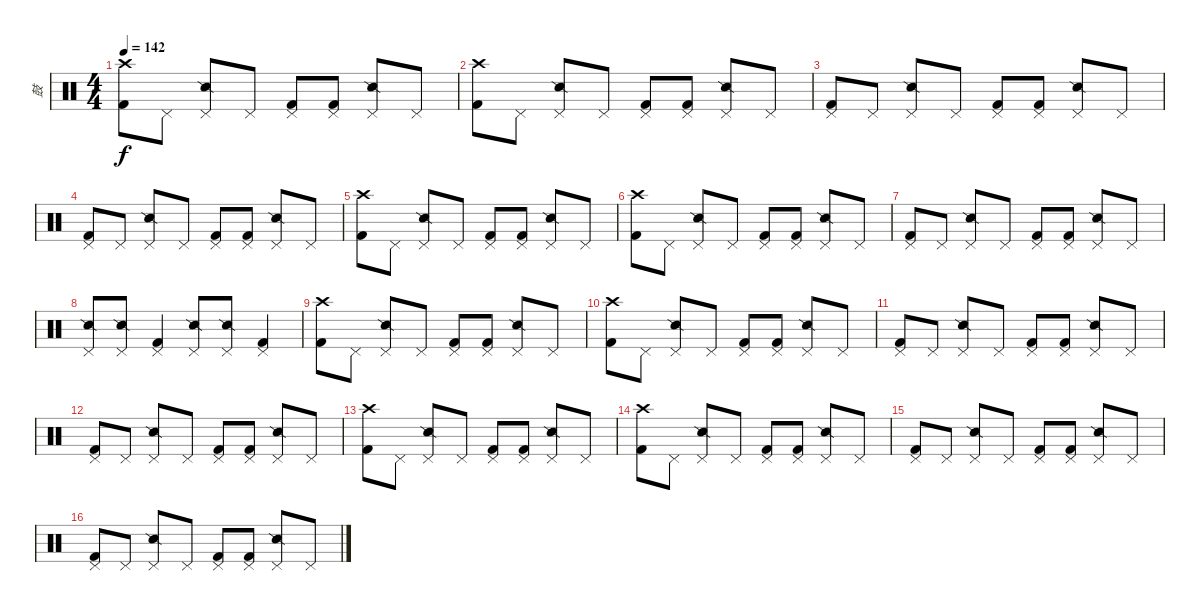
\track ("鼓" "鼓") {instrument percussion}
\staff {score}
\articulation defaults
\ts (4 4)
\tempo 142
\clef neutral
\ks c
("Crash high (hit)" "Kick (hit) 2").8{dy f} "Pedal Hi-Hat (hit)".8 ("Pedal Hi-Hat (hit)" "Snare (side stick) 2").8 "Pedal Hi-Hat (hit)".8 ("Pedal Hi-Hat (hit)" "Kick (hit) 2").8 ("Pedal Hi-Hat (hit)" "Kick (hit) 2").8 ("Pedal Hi-Hat (hit)" "Snare (side stick) 2").8 "Pedal Hi-Hat (hit)".8 |
("Crash high (hit)" "Kick (hit) 2").8 "Pedal Hi-Hat (hit)".8 ("Pedal Hi-Hat (hit)" "Snare (side stick) 2").8 "Pedal Hi-Hat (hit)".8 ("Pedal Hi-Hat (hit)" "Kick (hit) 2").8 ("Pedal Hi-Hat (hit)" "Kick (hit) 2").8 ("Pedal Hi-Hat (hit)" "Snare (side stick) 2").8 "Pedal Hi-Hat (hit)".8 |
("Pedal Hi-Hat (hit)" "Kick (hit) 2").8 "Pedal Hi-Hat (hit)".8 ("Pedal Hi-Hat (hit)" "Snare (side stick) 2").8 "Pedal Hi-Hat (hit)".8 ("Pedal Hi-Hat (hit)" "Kick (hit) 2").8 ("Pedal Hi-Hat (hit)" "Kick (hit) 2").8 ("Pedal Hi-Hat (hit)" "Snare (side stick) 2").8 "Pedal Hi-Hat (hit)".8 |
("Pedal Hi-Hat (hit)" "Kick (hit) 2").8 "Pedal Hi-Hat (hit)".8 ("Pedal Hi-Hat (hit)" "Snare (side stick) 2").8 "Pedal Hi-Hat (hit)".8 ("Pedal Hi-Hat (hit)" "Kick (hit) 2").8 ("Pedal Hi-Hat (hit)" "Kick (hit) 2").8 ("Pedal Hi-Hat (hit)" "Snare (side stick) 2").8 "Pedal Hi-Hat (hit)".8 |
("Crash high (hit)" "Kick (hit) 2").8 "Pedal Hi-Hat (hit)".8 ("Pedal Hi-Hat (hit)" "Snare (side stick) 2").8 "Pedal Hi-Hat (hit)".8 ("Pedal Hi-Hat (hit)" "Kick (hit) 2").8 ("Pedal Hi-Hat (hit)" "Kick (hit) 2").8 ("Pedal Hi-Hat (hit)" "Snare (side stick) 2").8 "Pedal Hi-Hat (hit)".8 |
("Crash high (hit)" "Kick (hit) 2").8 "Pedal Hi-Hat (hit)".8 ("Pedal Hi-Hat (hit)" "Snare (side stick) 2").8 "Pedal Hi-Hat (hit)".8 ("Pedal Hi-Hat (hit)" "Kick (hit) 2").8 ("Pedal Hi-Hat (hit)" "Kick (hit) 2").8 ("Pedal Hi-Hat (hit)" "Snare (side stick) 2").8 "Pedal Hi-Hat (hit)".8 |
("Pedal Hi-Hat (hit)" "Kick (hit) 2").8 "Pedal Hi-Hat (hit)".8 ("Pedal Hi-Hat (hit)" "Snare (side stick) 2").8 "Pedal Hi-Hat (hit)".8 ("Pedal Hi-Hat (hit)" "Kick (hit) 2").8 ("Pedal Hi-Hat (hit)" "Kick (hit) 2").8 ("Pedal Hi-Hat (hit)" "Snare (side stick) 2").8 "Pedal Hi-Hat (hit)".8 |
("Pedal Hi-Hat (hit)" "Snare (side stick) 2").8 ("Pedal Hi-Hat (hit)" "Snare (side stick) 2").8 ("Pedal Hi-Hat (hit)" "Kick (hit) 2").4 ("Pedal Hi-Hat (hit)" "Snare (side stick) 2").8 ("Pedal Hi-Hat (hit)" "Snare (side stick) 2").8 ("Pedal Hi-Hat (hit)" "Kick (hit) 2").4 |
("Crash high (hit)" "Kick (hit) 2").8 "Pedal Hi-Hat (hit)".8 ("Pedal Hi-Hat (hit)" "Snare (side stick) 2").8 "Pedal Hi-Hat (hit)".8 ("Pedal Hi-Hat (hit)" "Kick (hit) 2").8 ("Pedal Hi-Hat (hit)" "Kick (hit) 2").8 ("Pedal Hi-Hat (hit)" "Snare (side stick) 2").8 "Pedal Hi-Hat (hit)".8 |
("Crash high (hit)" "Kick (hit) 2").8 "Pedal Hi-Hat (hit)".8 ("Pedal Hi-Hat (hit)" "Snare (side stick) 2").8 "Pedal Hi-Hat (hit)".8 ("Pedal Hi-Hat (hit)" "Kick (hit) 2").8 ("Pedal Hi-Hat (hit)" "Kick (hit) 2").8 ("Pedal Hi-Hat (hit)" "Snare (side stick) 2").8 "Pedal Hi-Hat (hit)".8 |
("Pedal Hi-Hat (hit)" "Kick (hit) 2").8 "Pedal Hi-Hat (hit)".8 ("Pedal Hi-Hat (hit)" "Snare (side stick) 2").8 "Pedal Hi-Hat (hit)".8 ("Pedal Hi-Hat (hit)" "Kick (hit) 2").8 ("Pedal Hi-Hat (hit)" "Kick (hit) 2").8 ("Pedal Hi-Hat (hit)" "Snare (side stick) 2").8 "Pedal Hi-Hat (hit)".8 |
("Pedal Hi-Hat (hit)" "Kick (hit) 2").8 "Pedal Hi-Hat (hit)".8 ("Pedal Hi-Hat (hit)" "Snare (side stick) 2").8 "Pedal Hi-Hat (hit)".8 ("Pedal Hi-Hat (hit)" "Kick (hit) 2").8 ("Pedal Hi-Hat (hit)" "Kick (hit) 2").8 ("Pedal Hi-Hat (hit)" "Snare (side stick) 2").8 "Pedal Hi-Hat (hit)".8 |
("Crash high (hit)" "Kick (hit) 2").8 "Pedal Hi-Hat (hit)".8 ("Pedal Hi-Hat (hit)" "Snare (side stick) 2").8 "Pedal Hi-Hat (hit)".8 ("Pedal Hi-Hat (hit)" "Kick (hit) 2").8 ("Pedal Hi-Hat (hit)" "Kick (hit) 2").8 ("Pedal Hi-Hat (hit)" "Snare (side stick) 2").8 "Pedal Hi-Hat (hit)".8 |
("Crash high (hit)" "Kick (hit) 2").8 "Pedal Hi-Hat (hit)".8 ("Pedal Hi-Hat (hit)" "Snare (side stick) 2").8 "Pedal Hi-Hat (hit)".8 ("Pedal Hi-Hat (hit)" "Kick (hit) 2").8 ("Pedal Hi-Hat (hit)" "Kick (hit) 2").8 ("Pedal Hi-Hat (hit)" "Snare (side stick) 2").8 "Pedal Hi-Hat (hit)".8 |
("Pedal Hi-Hat (hit)" "Kick (hit) 2").8 "Pedal Hi-Hat (hit)".8 ("Pedal Hi-Hat (hit)" "Snare (side stick) 2").8 "Pedal Hi-Hat (hit)".8 ("Pedal Hi-Hat (hit)" "Kick (hit) 2").8 ("Pedal Hi-Hat (hit)" "Kick (hit) 2").8 ("Pedal Hi-Hat (hit)" "Snare (side stick) 2").8 "Pedal Hi-Hat (hit)".8 |
("Pedal Hi-Hat (hit)" "Kick (hit) 2").8 "Pedal Hi-Hat (hit)".8 ("Pedal Hi-Hat (hit)" "Snare (side stick) 2").8 "Pedal Hi-Hat (hit)".8 ("Pedal Hi-Hat (hit)" "Kick (hit) 2").8 ("Pedal Hi-Hat (hit)" "Kick (hit) 2").8 ("Pedal Hi-Hat (hit)" "Snare (side stick) 2").8 "Pedal Hi-Hat (hit)".8
